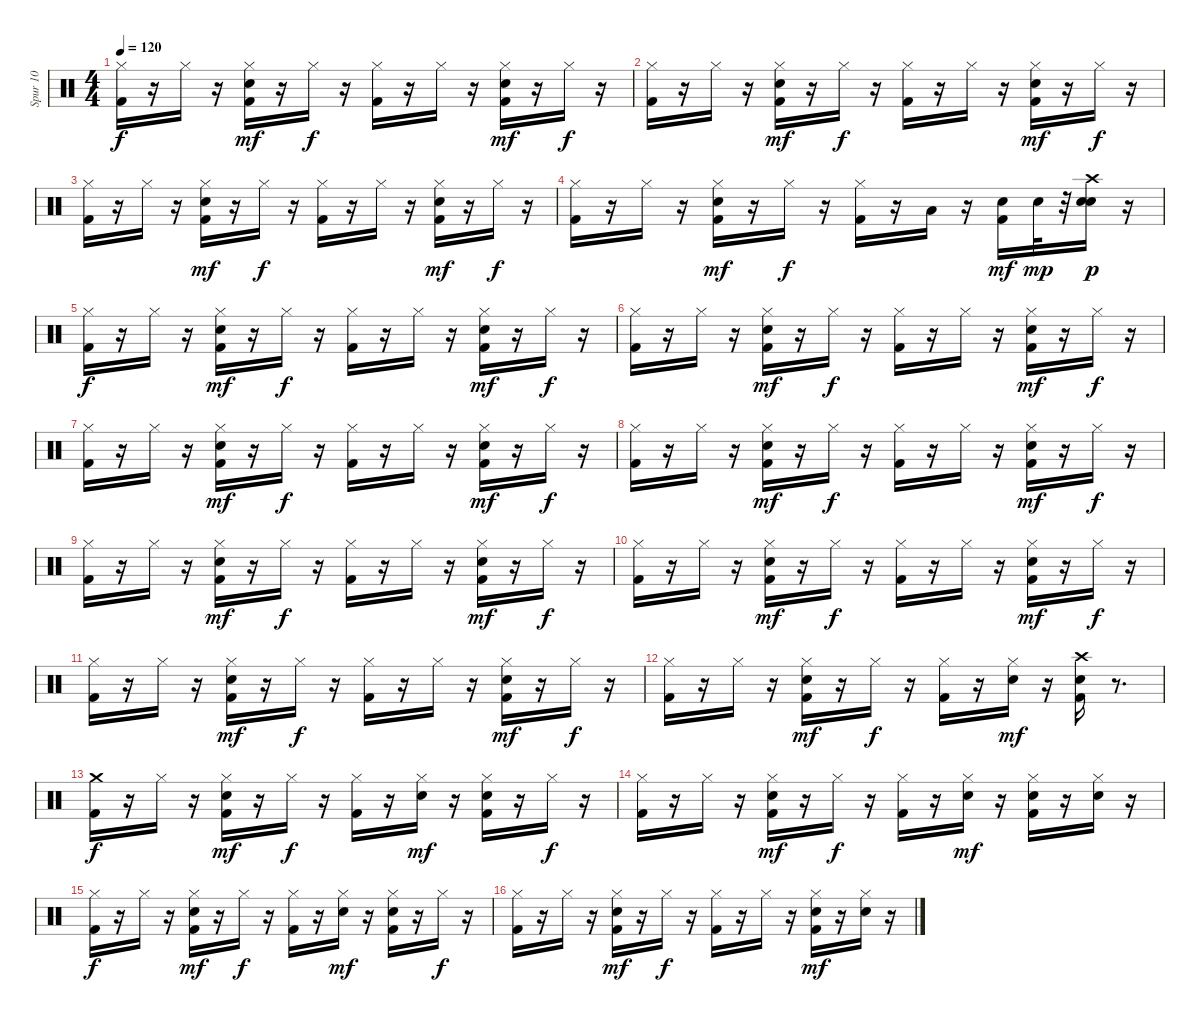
\track ("Spur 10" "Spur 10") {instrument percussion}
\staff {score}
\articulation defaults
\ts (4 4)
\tempo 120
\clef neutral
\ks c
("Kick (hit) 2" "Hi-Hat (closed)").16{dy f} r.16 "Hi-Hat (closed)".16 r.16 ("Hi-Hat (closed)" "Kick (hit) 2" "Snare (hit) 2").16{dy mf} r.16 "Hi-Hat (closed)".16{dy f} r.16 ("Hi-Hat (closed)" "Kick (hit) 2").16 r.16 "Hi-Hat (closed)".16 r.16 ("Hi-Hat (closed)" "Kick (hit) 2" "Snare (hit) 2").16{dy mf} r.16 "Hi-Hat (closed)".16{dy f} r.16 |
("Hi-Hat (closed)" "Kick (hit) 2").16 r.16 "Hi-Hat (closed)".16 r.16 ("Hi-Hat (closed)" "Kick (hit) 2" "Snare (hit) 2").16{dy mf} r.16 "Hi-Hat (closed)".16{dy f} r.16 ("Hi-Hat (closed)" "Kick (hit) 2").16 r.16 "Hi-Hat (closed)".16 r.16 ("Hi-Hat (closed)" "Kick (hit) 2" "Snare (hit) 2").16{dy mf} r.16 "Hi-Hat (closed)".16{dy f} r.16 |
("Kick (hit) 2" "Hi-Hat (closed)").16 r.16 "Hi-Hat (closed)".16 r.16 ("Hi-Hat (closed)" "Kick (hit) 2" "Snare (hit) 2").16{dy mf} r.16 "Hi-Hat (closed)".16{dy f} r.16 ("Kick (hit) 2" "Hi-Hat (closed)").16 r.16 "Hi-Hat (closed)".16 r.16 ("Hi-Hat (closed)" "Kick (hit) 2" "Snare (hit) 2").16{dy mf} r.16 "Hi-Hat (closed)".16{dy f} r.16 |
("Hi-Hat (closed)" "Kick (hit) 2").16 r.16 "Hi-Hat (closed)".16 r.16 ("Hi-Hat (closed)" "Kick (hit) 2" "Snare (hit) 2").16{dy mf} r.16 "Hi-Hat (closed)".16{dy f} r.16 ("Kick (hit) 2" "Hi-Hat (closed)").16 r.16 "Low Tom (hit)".16 r.16 ("Kick (hit) 2" "Snare (hit) 2").16{dy mf} "Snare (hit) 2".32{dy mp} r.32 ("Crash high (hit)" "Snare (hit) 2" "Snare (hit) 2").16{dy p} r.16 |
("Kick (hit) 2" "Hi-Hat (closed)").16{dy f} r.16 "Hi-Hat (closed)".16 r.16 ("Hi-Hat (closed)" "Kick (hit) 2" "Snare (hit) 2").16{dy mf} r.16 "Hi-Hat (closed)".16{dy f} r.16 ("Hi-Hat (closed)" "Kick (hit) 2").16 r.16 "Hi-Hat (closed)".16 r.16 ("Hi-Hat (closed)" "Kick (hit) 2" "Snare (hit) 2").16{dy mf} r.16 "Hi-Hat (closed)".16{dy f} r.16 |
("Hi-Hat (closed)" "Kick (hit) 2").16 r.16 "Hi-Hat (closed)".16 r.16 ("Hi-Hat (closed)" "Kick (hit) 2" "Snare (hit) 2").16{dy mf} r.16 "Hi-Hat (closed)".16{dy f} r.16 ("Hi-Hat (closed)" "Kick (hit) 2").16 r.16 "Hi-Hat (closed)".16 r.16 ("Hi-Hat (closed)" "Kick (hit) 2" "Snare (hit) 2").16{dy mf} r.16 "Hi-Hat (closed)".16{dy f} r.16 |
("Kick (hit) 2" "Hi-Hat (closed)").16 r.16 "Hi-Hat (closed)".16 r.16 ("Hi-Hat (closed)" "Kick (hit) 2" "Snare (hit) 2").16{dy mf} r.16 "Hi-Hat (closed)".16{dy f} r.16 ("Kick (hit) 2" "Hi-Hat (closed)").16 r.16 "Hi-Hat (closed)".16 r.16 ("Hi-Hat (closed)" "Kick (hit) 2" "Snare (hit) 2").16{dy mf} r.16 "Hi-Hat (closed)".16{dy f} r.16 |
("Hi-Hat (closed)" "Kick (hit) 2").16 r.16 "Hi-Hat (closed)".16 r.16 ("Hi-Hat (closed)" "Kick (hit) 2" "Snare (hit) 2").16{dy mf} r.16 "Hi-Hat (closed)".16{dy f} r.16 ("Kick (hit) 2" "Hi-Hat (closed)").16 r.16 "Hi-Hat (closed)".16 r.16 ("Hi-Hat (closed)" "Kick (hit) 2" "Snare (hit) 2").16{dy mf} r.16 "Hi-Hat (closed)".16{dy f} r.16 |
("Kick (hit) 2" "Hi-Hat (closed)").16 r.16 "Hi-Hat (closed)".16 r.16 ("Hi-Hat (closed)" "Kick (hit) 2" "Snare (hit) 2").16{dy mf} r.16 "Hi-Hat (closed)".16{dy f} r.16 ("Hi-Hat (closed)" "Kick (hit) 2").16 r.16 "Hi-Hat (closed)".16 r.16 ("Hi-Hat (closed)" "Kick (hit) 2" "Snare (hit) 2").16{dy mf} r.16 "Hi-Hat (closed)".16{dy f} r.16 |
("Hi-Hat (closed)" "Kick (hit) 2").16 r.16 "Hi-Hat (closed)".16 r.16 ("Hi-Hat (closed)" "Kick (hit) 2" "Snare (hit) 2").16{dy mf} r.16 "Hi-Hat (closed)".16{dy f} r.16 ("Hi-Hat (closed)" "Kick (hit) 2").16 r.16 "Hi-Hat (closed)".16 r.16 ("Hi-Hat (closed)" "Kick (hit) 2" "Snare (hit) 2").16{dy mf} r.16 "Hi-Hat (closed)".16{dy f} r.16 |
("Kick (hit) 2" "Hi-Hat (closed)").16 r.16 "Hi-Hat (closed)".16 r.16 ("Hi-Hat (closed)" "Kick (hit) 2" "Snare (hit) 2").16{dy mf} r.16 "Hi-Hat (closed)".16{dy f} r.16 ("Kick (hit) 2" "Hi-Hat (closed)").16 r.16 "Hi-Hat (closed)".16 r.16 ("Hi-Hat (closed)" "Kick (hit) 2" "Snare (hit) 2").16{dy mf} r.16 "Hi-Hat (closed)".16{dy f} r.16 |
("Hi-Hat (closed)" "Kick (hit) 2").16 r.16 "Hi-Hat (closed)".16 r.16 ("Hi-Hat (closed)" "Kick (hit) 2" "Snare (hit) 2").16{dy mf} r.16 "Hi-Hat (closed)".16{dy f} r.16 ("Kick (hit) 2" "Hi-Hat (closed)").16 r.16 ("Hi-Hat (closed)" "Snare (hit) 2").16{dy mf} r.16 ("Kick (hit) 2" "Snare (hit) 2" "Crash high (hit)").16 r.8{d} |
("Crash medium (hit)" "Kick (hit) 2").16{dy f} r.16 "Hi-Hat (closed)".16 r.16 ("Kick (hit) 2" "Hi-Hat (closed)" "Snare (hit) 2").16{dy mf} r.16 "Hi-Hat (closed)".16{dy f} r.16 ("Kick (hit) 2" "Hi-Hat (closed)").16 r.16 ("Hi-Hat (closed)" "Snare (hit) 2").16{dy mf} r.16 ("Kick (hit) 2" "Hi-Hat (closed)" "Snare (hit) 2").16 r.16 "Hi-Hat (closed)".16{dy f} r.16 |
("Hi-Hat (closed)" "Kick (hit) 2").16 r.16 "Hi-Hat (closed)".16 r.16 ("Kick (hit) 2" "Hi-Hat (closed)" "Snare (hit) 2").16{dy mf} r.16 "Hi-Hat (closed)".16{dy f} r.16 ("Hi-Hat (closed)" "Kick (hit) 2").16 r.16 ("Hi-Hat (closed)" "Snare (hit) 2").16{dy mf} r.16 ("Kick (hit) 2" "Hi-Hat (closed)" "Snare (hit) 2").16 r.16 ("Hi-Hat (closed)" "Snare (hit) 2").16 r.16 |
("Hi-Hat (closed)" "Kick (hit) 2").16{dy f} r.16 "Hi-Hat (closed)".16 r.16 ("Kick (hit) 2" "Hi-Hat (closed)" "Snare (hit) 2").16{dy mf} r.16 "Hi-Hat (closed)".16{dy f} r.16 ("Kick (hit) 2" "Hi-Hat (closed)").16 r.16 ("Hi-Hat (closed)" "Snare (hit) 2").16{dy mf} r.16 ("Kick (hit) 2" "Hi-Hat (closed)" "Snare (hit) 2").16 r.16 "Hi-Hat (closed)".16{dy f} r.16 |
("Hi-Hat (closed)" "Kick (hit) 2").16 r.16 "Hi-Hat (closed)".16 r.16 ("Kick (hit) 2" "Hi-Hat (closed)" "Snare (hit) 2").16{dy mf} r.16 "Hi-Hat (closed)".16{dy f} r.16 ("Kick (hit) 2" "Hi-Hat (closed)").16 r.16 "Hi-Hat (closed)".16 r.16 ("Kick (hit) 2" "Hi-Hat (closed)" "Snare (hit) 2").16{dy mf} r.16 ("Hi-Hat (closed)" "Snare (hit) 2").16 r.16
